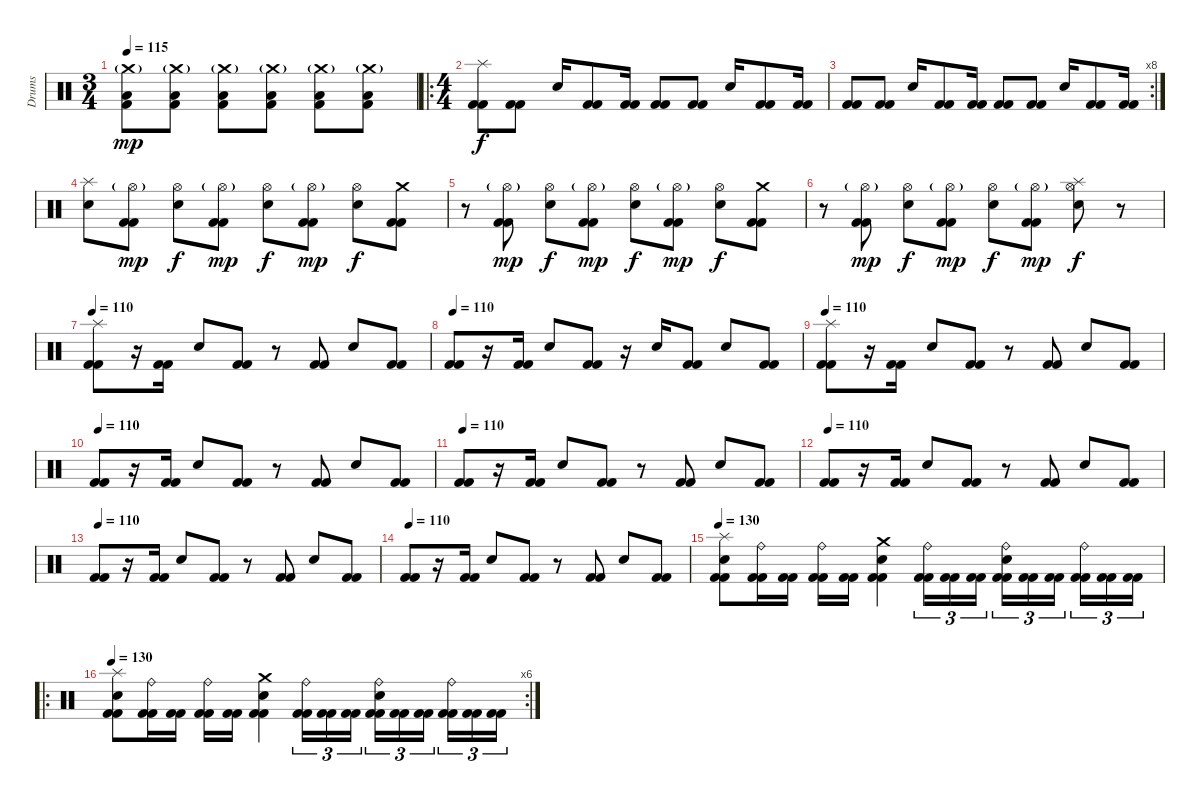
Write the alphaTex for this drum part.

\track ("Drums" "Drums") {instrument percussion}
\staff {score}
\articulation defaults
\ts (3 4)
\tempo 115
\clef neutral
\ks c
("Crash medium (hit)"{g} "Low Tom (hit)" "Kick (hit) 2").8{dy mp} ("Crash medium (hit)"{g} "Low Tom (hit)" "Kick (hit) 2").8 ("Crash medium (hit)"{g} "Low Tom (hit)" "Kick (hit) 2").8 ("Crash medium (hit)"{g} "Low Tom (hit)" "Kick (hit) 2").8 ("Crash medium (hit)"{g} "Low Tom (hit)" "Kick (hit) 2").8 ("Crash medium (hit)"{g} "Low Tom (hit)" "Kick (hit) 2").8 |
\ro
\ts (4 4)
("Splash (hit)" "Kick (hit) 2" "Kick (hit) 2").8{dy f} ("Kick (hit) 2" "Kick (hit) 2").8 "Electric Snare (hit)".16 ("Kick (hit) 2" "Kick (hit) 2").8 ("Kick (hit) 2" "Kick (hit) 2").16 ("Kick (hit) 2" "Kick (hit) 2").8 ("Kick (hit) 2" "Kick (hit) 2").8 "Electric Snare (hit)".16 ("Kick (hit) 2" "Kick (hit) 2").8 ("Kick (hit) 2" "Kick (hit) 2").16 |
\rc 8
("Kick (hit) 2" "Kick (hit) 2").8 ("Kick (hit) 2" "Kick (hit) 2").8 "Electric Snare (hit)".16 ("Kick (hit) 2" "Kick (hit) 2").8 ("Kick (hit) 2" "Kick (hit) 2").16 ("Kick (hit) 2" "Kick (hit) 2").8 ("Kick (hit) 2" "Kick (hit) 2").8 "Electric Snare (hit)".16 ("Kick (hit) 2" "Kick (hit) 2").8 ("Kick (hit) 2" "Kick (hit) 2").16 |
("Splash (hit)" "Electric Snare (hit)").8 ("Hi-Hat (open)"{g} "Kick (hit) 2" "Kick (hit) 2").8{dy mp} ("Hi-Hat (open)" "Electric Snare (hit)").8{dy f} ("Hi-Hat (open)"{g} "Kick (hit) 2" "Kick (hit) 2").8{dy mp} ("Hi-Hat (open)" "Electric Snare (hit)").8{dy f} ("Hi-Hat (open)"{g} "Kick (hit) 2" "Kick (hit) 2").8{dy mp} ("Hi-Hat (open)" "Electric Snare (hit)").8{dy f} ("Crash medium (hit)" "Kick (hit) 2" "Kick (hit) 2").8 |
r.8 ("Hi-Hat (open)"{g} "Kick (hit) 2" "Kick (hit) 2").8{dy mp} ("Hi-Hat (open)" "Electric Snare (hit)").8{dy f} ("Hi-Hat (open)"{g} "Kick (hit) 2" "Kick (hit) 2").8{dy mp} ("Hi-Hat (open)" "Electric Snare (hit)").8{dy f} ("Hi-Hat (open)"{g} "Kick (hit) 2" "Kick (hit) 2").8{dy mp} ("Hi-Hat (open)" "Electric Snare (hit)").8{dy f} ("Crash medium (hit)" "Kick (hit) 2" "Kick (hit) 2").8 |
r.8 ("Hi-Hat (open)"{g} "Kick (hit) 2" "Kick (hit) 2").8{dy mp} ("Hi-Hat (open)" "Electric Snare (hit)").8{dy f} ("Hi-Hat (open)"{g} "Kick (hit) 2" "Kick (hit) 2").8{dy mp} ("Hi-Hat (open)" "Electric Snare (hit)").8{dy f} ("Hi-Hat (open)"{g} "Kick (hit) 2" "Kick (hit) 2").8{dy mp} ("Splash (hit)" "Hi-Hat (open)" "Electric Snare (hit)").8{dy f} r.8 |
\tempo 130
\tempo 110
("Splash (hit)" "Kick (hit) 2" "Kick (hit) 2").8 r.16 ("Kick (hit) 2" "Kick (hit) 2").16 "Electric Snare (hit)".8 ("Kick (hit) 2" "Kick (hit) 2").8 r.8 ("Kick (hit) 2" "Kick (hit) 2").8 "Electric Snare (hit)".8 ("Kick (hit) 2" "Kick (hit) 2").8 |
\tempo 110
("Kick (hit) 2" "Kick (hit) 2").8 r.16 ("Kick (hit) 2" "Kick (hit) 2").16 "Electric Snare (hit)".8 ("Kick (hit) 2" "Kick (hit) 2").8 r.16 "Electric Snare (hit)".16 ("Kick (hit) 2" "Kick (hit) 2").8 "Electric Snare (hit)".8 ("Kick (hit) 2" "Kick (hit) 2").8 |
\tempo 130
\tempo 110
("Splash (hit)" "Kick (hit) 2" "Kick (hit) 2").8 r.16 ("Kick (hit) 2" "Kick (hit) 2").16 "Electric Snare (hit)".8 ("Kick (hit) 2" "Kick (hit) 2").8 r.8 ("Kick (hit) 2" "Kick (hit) 2").8 "Electric Snare (hit)".8 ("Kick (hit) 2" "Kick (hit) 2").8 |
\tempo 110
("Kick (hit) 2" "Kick (hit) 2").8 r.16 ("Kick (hit) 2" "Kick (hit) 2").16 "Electric Snare (hit)".8 ("Kick (hit) 2" "Kick (hit) 2").8 r.8 ("Kick (hit) 2" "Kick (hit) 2").8 "Electric Snare (hit)".8 ("Kick (hit) 2" "Kick (hit) 2").8 |
\tempo 130
\tempo 110
("Kick (hit) 2" "Kick (hit) 2").8 r.16 ("Kick (hit) 2" "Kick (hit) 2").16 "Electric Snare (hit)".8 ("Kick (hit) 2" "Kick (hit) 2").8 r.8 ("Kick (hit) 2" "Kick (hit) 2").8 "Electric Snare (hit)".8 ("Kick (hit) 2" "Kick (hit) 2").8 |
\tempo 110
("Kick (hit) 2" "Kick (hit) 2").8 r.16 ("Kick (hit) 2" "Kick (hit) 2").16 "Electric Snare (hit)".8 ("Kick (hit) 2" "Kick (hit) 2").8 r.8 ("Kick (hit) 2" "Kick (hit) 2").8 "Electric Snare (hit)".8 ("Kick (hit) 2" "Kick (hit) 2").8 |
\tempo 130
\tempo 110
("Kick (hit) 2" "Kick (hit) 2").8 r.16 ("Kick (hit) 2" "Kick (hit) 2").16 "Electric Snare (hit)".8 ("Kick (hit) 2" "Kick (hit) 2").8 r.8 ("Kick (hit) 2" "Kick (hit) 2").8 "Electric Snare (hit)".8 ("Kick (hit) 2" "Kick (hit) 2").8 |
\tempo 110
("Kick (hit) 2" "Kick (hit) 2").8 r.16 ("Kick (hit) 2" "Kick (hit) 2").16 "Electric Snare (hit)".8 ("Kick (hit) 2" "Kick (hit) 2").8 r.8 ("Kick (hit) 2" "Kick (hit) 2").8 "Electric Snare (hit)".8 ("Kick (hit) 2" "Kick (hit) 2").8 |
\tempo 130
("Splash (hit)" "Electric Snare (hit)" "Kick (hit) 2" "Kick (hit) 2").8 ("Ride (bell)" "Kick (hit) 2" "Kick (hit) 2").16 ("Kick (hit) 2" "Kick (hit) 2").16 ("Ride (bell)" "Kick (hit) 2" "Kick (hit) 2").16 ("Kick (hit) 2" "Kick (hit) 2").16 ("Crash medium (hit)" "Electric Snare (hit)" "Kick (hit) 2" "Kick (hit) 2").4 ("Ride (bell)" "Kick (hit) 2" "Kick (hit) 2").16{tu (3 2)} ("Kick (hit) 2" "Kick (hit) 2").16{tu (3 2)} ("Kick (hit) 2" "Kick (hit) 2").16{tu (3 2)} ("Electric Snare (hit)" "Ride (bell)" "Kick (hit) 2" "Kick (hit) 2").16{tu (3 2)} ("Kick (hit) 2" "Kick (hit) 2").16{tu (3 2)} ("Kick (hit) 2" "Kick (hit) 2").16{tu (3 2)} ("Ride (bell)" "Kick (hit) 2" "Kick (hit) 2").16{tu (3 2)} ("Kick (hit) 2" "Kick (hit) 2").16{tu (3 2)} ("Kick (hit) 2" "Kick (hit) 2").16{tu (3 2)} |
\ro
\rc 6
\tempo 130
("Splash (hit)" "Electric Snare (hit)" "Kick (hit) 2" "Kick (hit) 2").8 ("Ride (bell)" "Kick (hit) 2" "Kick (hit) 2").16 ("Kick (hit) 2" "Kick (hit) 2").16 ("Ride (bell)" "Kick (hit) 2" "Kick (hit) 2").16 ("Kick (hit) 2" "Kick (hit) 2").16 ("Crash medium (hit)" "Electric Snare (hit)" "Kick (hit) 2" "Kick (hit) 2").4 ("Ride (bell)" "Kick (hit) 2" "Kick (hit) 2").16{tu (3 2)} ("Kick (hit) 2" "Kick (hit) 2").16{tu (3 2)} ("Kick (hit) 2" "Kick (hit) 2").16{tu (3 2)} ("Electric Snare (hit)" "Ride (bell)" "Kick (hit) 2" "Kick (hit) 2").16{tu (3 2)} ("Kick (hit) 2" "Kick (hit) 2").16{tu (3 2)} ("Kick (hit) 2" "Kick (hit) 2").16{tu (3 2)} ("Ride (bell)" "Kick (hit) 2" "Kick (hit) 2").16{tu (3 2)} ("Kick (hit) 2" "Kick (hit) 2").16{tu (3 2)} ("Kick (hit) 2" "Kick (hit) 2").16{tu (3 2)}
